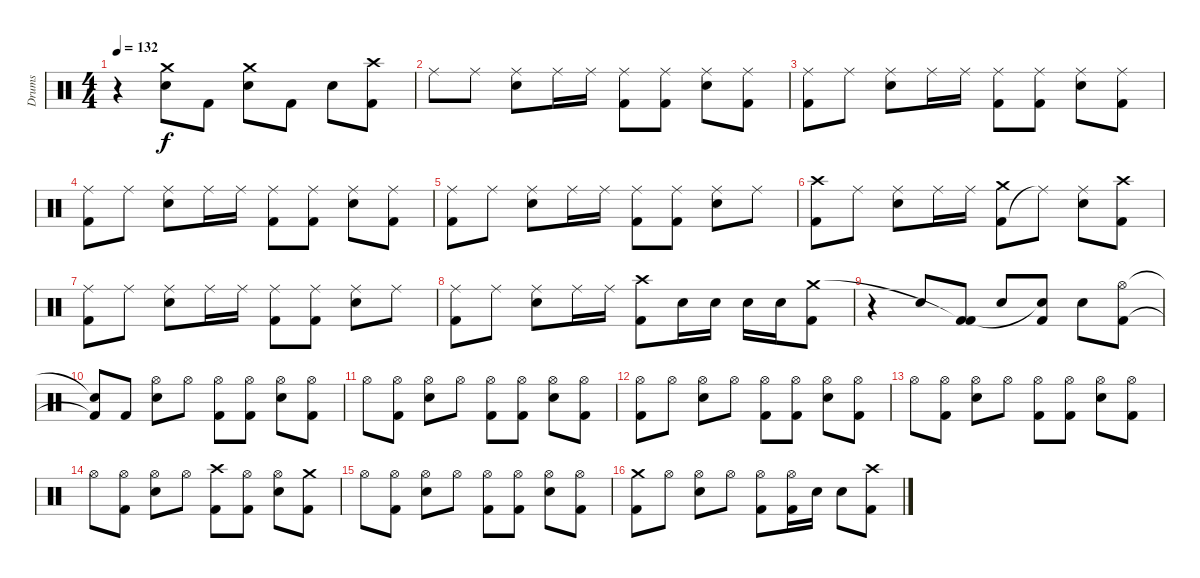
\track ("Drums" "Drums") {instrument percussion}
\staff
\articulation defaults
\ts (4 4)
\tempo 132
\clef neutral
\ks c
r.4{dy f} ("Snare (hit) 2" "Crash medium (hit)").8 "Kick (hit) 2".8 ("Snare (hit) 2" "Crash medium (hit)").8 "Kick (hit) 2".8 "Snare (hit) 2".8 ("Kick (hit) 2" "Crash high (hit)").8 |
"Ride (middle)".8 "Ride (middle)".8 ("Snare (hit) 2" "Ride (middle)").8 "Ride (middle)".16 "Ride (middle)".16 ("Kick (hit) 2" "Ride (middle)").8 ("Kick (hit) 2" "Ride (middle)").8 ("Snare (hit) 2" "Ride (middle)").8 ("Kick (hit) 2" "Ride (middle)").8 |
("Kick (hit) 2" "Ride (middle)").8 "Ride (middle)".8 ("Snare (hit) 2" "Ride (middle)").8 "Ride (middle)".16 "Ride (middle)".16 ("Kick (hit) 2" "Ride (middle)").8 ("Kick (hit) 2" "Ride (middle)").8 ("Snare (hit) 2" "Ride (middle)").8 ("Kick (hit) 2" "Ride (middle)").8 |
("Kick (hit) 2" "Ride (middle)").8 "Ride (middle)".8 ("Snare (hit) 2" "Ride (middle)").8 "Ride (middle)".16 "Ride (middle)".16 ("Kick (hit) 2" "Ride (middle)").8 ("Kick (hit) 2" "Ride (middle)").8 ("Snare (hit) 2" "Ride (middle)").8 ("Kick (hit) 2" "Ride (middle)").8 |
("Kick (hit) 2" "Ride (middle)").8 "Ride (middle)".8 ("Snare (hit) 2" "Ride (middle)").8 "Ride (middle)".16 "Ride (middle)".16 ("Kick (hit) 2" "Ride (middle)").8 ("Kick (hit) 2" "Ride (middle)").8 ("Snare (hit) 2" "Ride (middle)").8 "Ride (middle)".8 |
("Kick (hit) 2" "Crash high (hit)").8 "Ride (middle)".8 ("Snare (hit) 2" "Ride (middle)").8 "Ride (middle)".16 "Ride (middle)".16 ("Kick (hit) 2" "Crash medium (hit)").8 "Ride (middle)"{t}.8 ("Snare (hit) 2" "Ride (middle)").8 ("Kick (hit) 2" "Crash high (hit)").8 |
("Kick (hit) 2" "Ride (middle)").8 "Ride (middle)".8 ("Snare (hit) 2" "Ride (middle)").8 "Ride (middle)".16 "Ride (middle)".16 ("Kick (hit) 2" "Ride (middle)").8 ("Kick (hit) 2" "Ride (middle)").8 ("Snare (hit) 2" "Ride (middle)").8 "Ride (middle)".8 |
("Kick (hit) 2" "Ride (middle)").8 "Ride (middle)".8 ("Snare (hit) 2" "Ride (middle)").8 "Ride (middle)".16 "Ride (middle)".16 ("Kick (hit) 2" "Crash high (hit)").8 "Snare (hit) 2".16 "Snare (hit) 2".16 "Snare (hit) 2".16 "Snare (hit) 2".16 ("Kick (hit) 2" "Crash medium (hit)").8 |
r.4 "Snare (hit) 2".8 ("Kick (hit) 2" "Kick (hit) 2"{t}).8 "Snare (hit) 2".8 ("Kick (hit) 2" "Snare (hit)"{t}).8 "Snare (hit) 2".8 ("Kick (hit) 2" "Hi-Hat (open)").8 |
("Kick (hit) 2"{t} "Snare (hit)"{t}).8 "Kick (hit) 2".8 ("Snare (hit) 2" "Hi-Hat (open)").8 "Hi-Hat (open)".8 ("Kick (hit) 2" "Hi-Hat (open)").8 ("Kick (hit) 2" "Hi-Hat (open)").8 ("Snare (hit) 2" "Hi-Hat (open)").8 ("Kick (hit) 2" "Hi-Hat (open)").8 |
"Hi-Hat (open)".8 ("Kick (hit) 2" "Hi-Hat (open)").8 ("Snare (hit) 2" "Hi-Hat (open)").8 "Hi-Hat (open)".8 ("Kick (hit) 2" "Hi-Hat (open)").8 ("Kick (hit) 2" "Hi-Hat (open)").8 ("Snare (hit) 2" "Hi-Hat (open)").8 ("Kick (hit) 2" "Hi-Hat (open)").8 |
("Kick (hit) 2" "Hi-Hat (open)").8 "Hi-Hat (open)".8 ("Snare (hit) 2" "Hi-Hat (open)").8 "Hi-Hat (open)".8 ("Kick (hit) 2" "Hi-Hat (open)").8 ("Kick (hit) 2" "Hi-Hat (open)").8 ("Snare (hit) 2" "Hi-Hat (open)").8 ("Kick (hit) 2" "Hi-Hat (open)").8 |
"Hi-Hat (open)".8 ("Kick (hit) 2" "Hi-Hat (open)").8 ("Snare (hit) 2" "Hi-Hat (open)").8 "Hi-Hat (open)".8 ("Kick (hit) 2" "Hi-Hat (open)").8 ("Kick (hit) 2" "Hi-Hat (open)").8 ("Snare (hit) 2" "Hi-Hat (open)").8 ("Kick (hit) 2" "Hi-Hat (open)").8 |
"Hi-Hat (open)".8 ("Kick (hit) 2" "Hi-Hat (open)").8 ("Snare (hit) 2" "Hi-Hat (open)").8 "Hi-Hat (open)".8 ("Kick (hit) 2" "Crash high (hit)").8 ("Kick (hit) 2" "Hi-Hat (open)").8 ("Snare (hit) 2" "Hi-Hat (open)").8 ("Kick (hit) 2" "Crash medium (hit)").8 |
"Hi-Hat (open)".8 ("Kick (hit) 2" "Hi-Hat (open)").8 ("Snare (hit) 2" "Hi-Hat (open)").8 "Hi-Hat (open)".8 ("Kick (hit) 2" "Hi-Hat (open)").8 ("Kick (hit) 2" "Hi-Hat (open)").8 ("Snare (hit) 2" "Hi-Hat (open)").8 ("Kick (hit) 2" "Hi-Hat (open)").8 |
("Kick (hit) 2" "Crash medium (hit)").8 "Hi-Hat (open)".8 ("Snare (hit) 2" "Hi-Hat (open)").8 "Hi-Hat (open)".8 ("Kick (hit) 2" "Hi-Hat (open)").8 ("Kick (hit) 2" "Hi-Hat (open)").16 "Snare (hit) 2".16 "Snare (hit) 2".8 ("Kick (hit) 2" "Crash high (hit)").8
